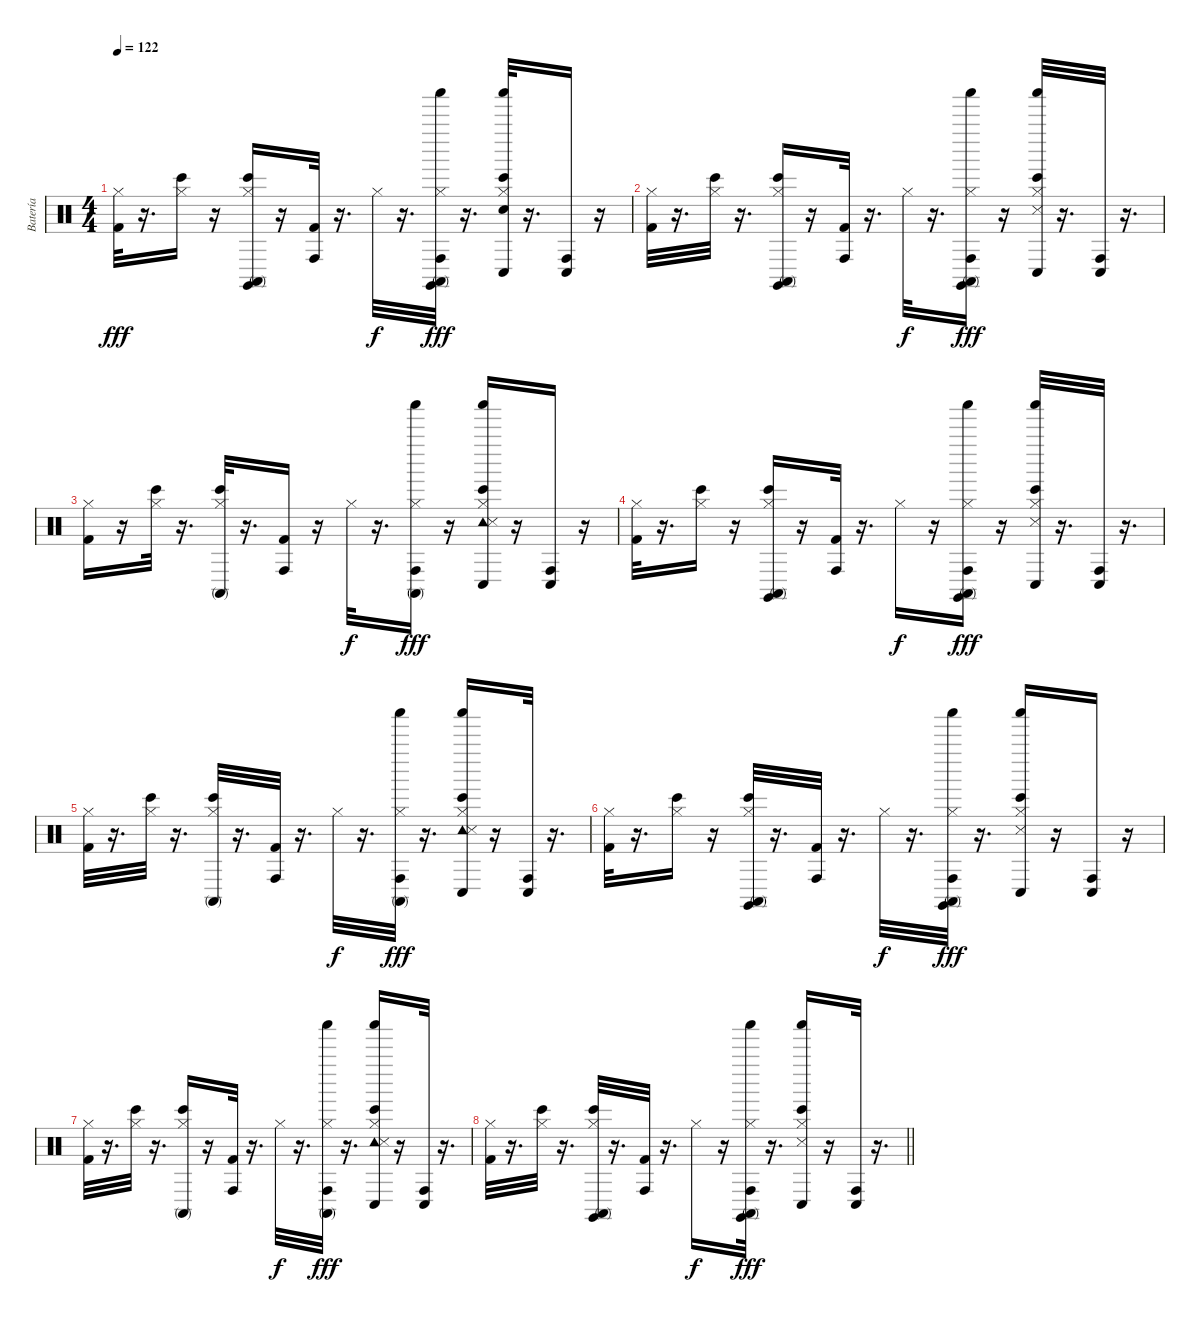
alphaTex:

\track ("Batería" "Batería") {instrument percussion}
\staff {score}
\articulation defaults
\ts (4 4)
\tempo 122
\clef neutral
\ks c
("Hi-Hat (closed)" "Kick (hit) 2").32{dy fff} r.16{d} ("Bongo High (hit)" "Hi-Hat (closed)").16 r.16 ("Claves (hit)" "Bongo High (hit)" "Conga high (mute)" "Hi-Hat (closed)").16 r.16 ("Conga high (hit)" "Kick (hit) 2").32 r.16{d} "Hi-Hat (closed)".32{dy f} r.16{d} ("Claves (hit)" "Conga high (hit)" "Conga high (mute)" "Shaker (hit)" "Hi-Hat (closed)").32{dy fff} r.16{d} ("Snare (hit) 2" "Bongo High (hit)" "Conga low (hit)" "Shaker (hit)" "Hi-Hat (closed)").32 r.16{d} ("Conga high (hit)" "Conga low (hit)").16 r.16 |
("Hi-Hat (closed)" "Kick (hit) 2").32 r.16{d} ("Bongo High (hit)" "Hi-Hat (closed)").32 r.16{d} ("Claves (hit)" "Bongo High (hit)" "Conga high (mute)" "Hi-Hat (closed)").16 r.16 ("Conga high (hit)" "Kick (hit) 2").32 r.16{d} "Hi-Hat (closed)".32{dy f} r.16{d} ("Claves (hit)" "Conga high (hit)" "Conga high (mute)" "Shaker (hit)" "Hi-Hat (closed)").16{dy fff} r.16 ("Snare (side stick) 3" "Bongo High (hit)" "Conga low (hit)" "Shaker (hit)" "Hi-Hat (closed)").32 r.16{d} ("Conga high (hit)" "Conga low (hit)").32 r.16{d} |
("Hi-Hat (closed)" "Kick (hit) 2").16 r.16 ("Bongo High (hit)" "Hi-Hat (closed)").32 r.16{d} ("Bongo High (hit)" "Conga high (mute)" "Hi-Hat (closed)").32 r.16{d} ("Conga high (hit)" "Kick (hit) 2").16 r.16 "Hi-Hat (closed)".32{dy f} r.16{d} ("Conga high (hit)" "Conga high (mute)" "Shaker (hit)" "Hi-Hat (closed)").16{dy fff} r.16 ("Tambourine (hit)" "Snare (side stick) 3" "Bongo High (hit)" "Conga low (hit)" "Shaker (hit)" "Hi-Hat (closed)").16 r.16 ("Conga high (hit)" "Conga low (hit)").16 r.16 |
("Hi-Hat (closed)" "Kick (hit) 2").32 r.16{d} ("Bongo High (hit)" "Hi-Hat (closed)").16 r.16 ("Claves (hit)" "Bongo High (hit)" "Conga high (mute)" "Hi-Hat (closed)").16 r.16 ("Conga high (hit)" "Kick (hit) 2").32 r.16{d} "Hi-Hat (closed)".16{dy f} r.16 ("Claves (hit)" "Conga high (hit)" "Conga high (mute)" "Shaker (hit)" "Hi-Hat (closed)").16{dy fff} r.16 ("Snare (side stick) 3" "Bongo High (hit)" "Conga low (hit)" "Shaker (hit)" "Hi-Hat (closed)").32 r.16{d} ("Conga high (hit)" "Conga low (hit)").32 r.16{d} |
("Hi-Hat (closed)" "Kick (hit) 2").32 r.16{d} ("Bongo High (hit)" "Hi-Hat (closed)").32 r.16{d} ("Bongo High (hit)" "Conga high (mute)" "Hi-Hat (closed)").32 r.16{d} ("Conga high (hit)" "Kick (hit) 2").32 r.16{d} "Hi-Hat (closed)".32{dy f} r.16{d} ("Conga high (hit)" "Conga high (mute)" "Shaker (hit)" "Hi-Hat (closed)").32{dy fff} r.16{d} ("Tambourine (hit)" "Snare (side stick) 3" "Bongo High (hit)" "Conga low (hit)" "Shaker (hit)" "Hi-Hat (closed)").16 r.16 ("Conga high (hit)" "Conga low (hit)").32 r.16{d} |
("Hi-Hat (closed)" "Kick (hit) 2").32 r.16{d} ("Bongo High (hit)" "Hi-Hat (closed)").16 r.16 ("Claves (hit)" "Bongo High (hit)" "Conga high (mute)" "Hi-Hat (closed)").32 r.16{d} ("Conga high (hit)" "Kick (hit) 2").32 r.16{d} "Hi-Hat (closed)".32{dy f} r.16{d} ("Claves (hit)" "Conga high (hit)" "Conga high (mute)" "Shaker (hit)" "Hi-Hat (closed)").32{dy fff} r.16{d} ("Snare (side stick) 3" "Bongo High (hit)" "Conga low (hit)" "Shaker (hit)" "Hi-Hat (closed)").16 r.16 ("Conga high (hit)" "Conga low (hit)").16 r.16 |
("Hi-Hat (closed)" "Kick (hit) 2").32 r.16{d} ("Bongo High (hit)" "Hi-Hat (closed)").32 r.16{d} ("Bongo High (hit)" "Conga high (mute)" "Hi-Hat (closed)").16 r.16 ("Conga high (hit)" "Kick (hit) 2").32 r.16{d} "Hi-Hat (closed)".32{dy f} r.16{d} ("Conga high (hit)" "Conga high (mute)" "Shaker (hit)" "Hi-Hat (closed)").32{dy fff} r.16{d} ("Tambourine (hit)" "Snare (side stick) 3" "Bongo High (hit)" "Conga low (hit)" "Shaker (hit)" "Hi-Hat (closed)").16 r.16 ("Conga high (hit)" "Conga low (hit)").32 r.16{d} |
\barLineRight lightlight
("Hi-Hat (closed)" "Kick (hit) 2").32 r.16{d} ("Bongo High (hit)" "Hi-Hat (closed)").32 r.16{d} ("Claves (hit)" "Bongo High (hit)" "Conga high (mute)" "Hi-Hat (closed)").32 r.16{d} ("Conga high (hit)" "Kick (hit) 2").32 r.16{d} "Hi-Hat (closed)".16{dy f} r.16 ("Claves (hit)" "Conga high (hit)" "Conga high (mute)" "Shaker (hit)" "Hi-Hat (closed)").32{dy fff} r.16{d} ("Snare (side stick) 3" "Bongo High (hit)" "Conga low (hit)" "Shaker (hit)" "Hi-Hat (closed)").16 r.16 ("Conga high (hit)" "Conga low (hit)").32 r.16{d}
